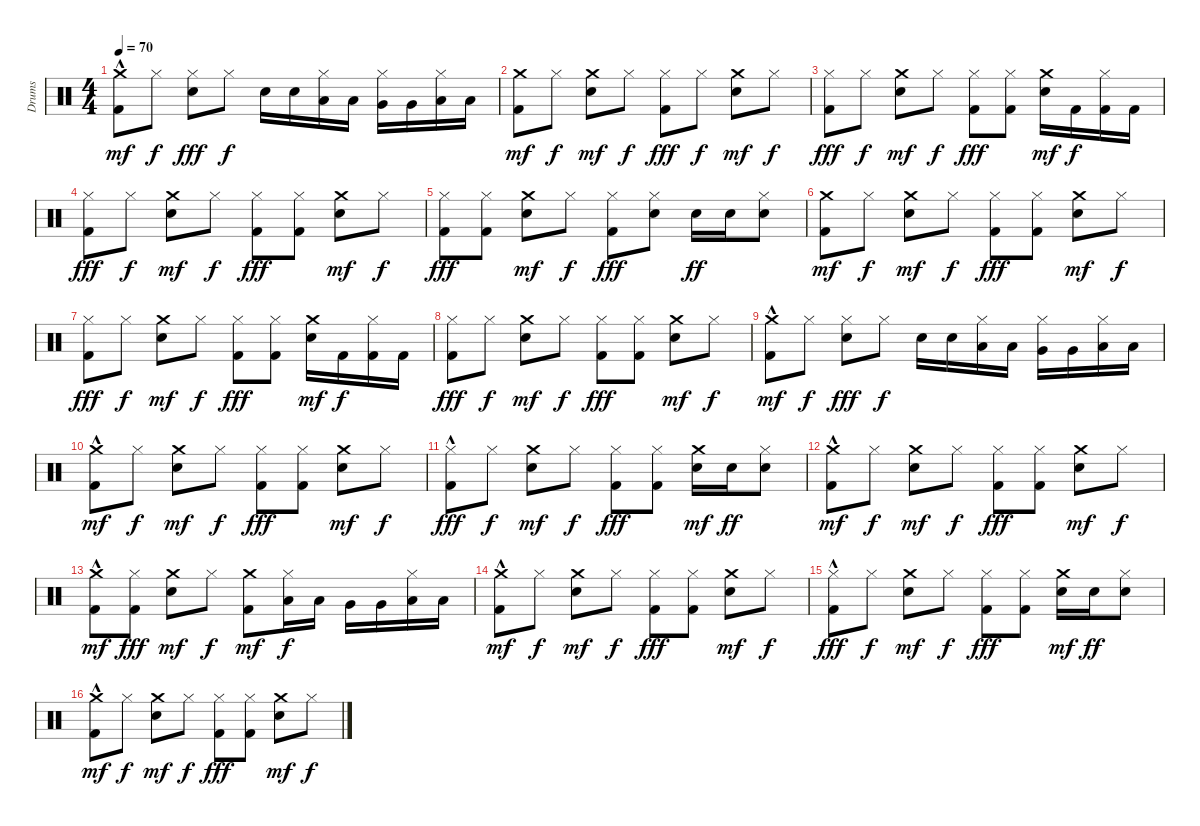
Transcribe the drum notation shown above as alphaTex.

\track ("Drums" "Drums") {instrument percussion}
\staff {score}
\articulation defaults
\ts (4 4)
\tempo 70
\clef neutral
\ks c
("Kick (hit) 2"{hac} "Crash medium (hit)").8{dy mf} "Hi-Hat (closed)".8{dy f} ("Snare (hit) 2" "Hi-Hat (closed)").8{dy fff} "Hi-Hat (closed)".8{dy f} "Snare (hit) 2".16 "Snare (hit) 2".16 ("Low Tom (hit)" "Hi-Hat (closed)").16 "Low Tom (hit)".16 ("Very Low Tom (hit)" "Hi-Hat (closed)").16 "Very Low Tom (hit)".16 ("Low Floor Tom (hit)" "Hi-Hat (closed)").16 "Low Floor Tom (hit)".16 |
("Kick (hit) 2" "Crash medium (hit)").8{dy mf} "Hi-Hat (closed)".8{dy f} ("Snare (hit) 2" "Crash medium (hit)").8{dy mf} "Hi-Hat (closed)".8{dy f} ("Kick (hit) 2" "Hi-Hat (closed)").8{dy fff} "Hi-Hat (closed)".8{dy f} ("Snare (hit) 2" "Crash medium (hit)").8{dy mf} "Hi-Hat (closed)".8{dy f} |
("Kick (hit) 2" "Hi-Hat (closed)").8{dy fff} "Hi-Hat (closed)".8{dy f} ("Snare (hit) 2" "Crash medium (hit)").8{dy mf} "Hi-Hat (closed)".8{dy f} ("Kick (hit) 2" "Hi-Hat (closed)").8{dy fff} ("Kick (hit) 2" "Hi-Hat (closed)").8 ("Snare (hit) 2" "Crash medium (hit)").16{dy mf} "Kick (hit) 2".16{dy f} ("Kick (hit) 2" "Hi-Hat (closed)").16 "Kick (hit) 2".16 |
("Hi-Hat (closed)" "Kick (hit) 2").8{dy fff} "Hi-Hat (closed)".8{dy f} ("Snare (hit) 2" "Crash medium (hit)").8{dy mf} "Hi-Hat (closed)".8{dy f} ("Kick (hit) 2" "Hi-Hat (closed)").8{dy fff} ("Kick (hit) 2" "Hi-Hat (closed)").8 ("Snare (hit) 2" "Crash medium (hit)").8{dy mf} "Hi-Hat (closed)".8{dy f} |
("Hi-Hat (closed)" "Kick (hit) 2").8{dy fff} ("Kick (hit) 2" "Hi-Hat (closed)").8 ("Snare (hit) 2" "Crash medium (hit)").8{dy mf} "Hi-Hat (closed)".8{dy f} ("Kick (hit) 2" "Hi-Hat (closed)").8{dy fff} ("Snare (hit) 2" "Hi-Hat (closed)").8 "Snare (hit) 2".16{dy ff} "Snare (hit) 2".16 ("Snare (hit) 2" "Hi-Hat (closed)").8 |
("Kick (hit) 2" "Crash medium (hit)").8{dy mf} "Hi-Hat (closed)".8{dy f} ("Snare (hit) 2" "Crash medium (hit)").8{dy mf} "Hi-Hat (closed)".8{dy f} ("Kick (hit) 2" "Hi-Hat (closed)").8{dy fff} ("Hi-Hat (closed)" "Kick (hit) 2").8 ("Snare (hit) 2" "Crash medium (hit)").8{dy mf} "Hi-Hat (closed)".8{dy f} |
("Kick (hit) 2" "Hi-Hat (closed)").8{dy fff} "Hi-Hat (closed)".8{dy f} ("Snare (hit) 2" "Crash medium (hit)").8{dy mf} "Hi-Hat (closed)".8{dy f} ("Kick (hit) 2" "Hi-Hat (closed)").8{dy fff} ("Kick (hit) 2" "Hi-Hat (closed)").8 ("Snare (hit) 2" "Crash medium (hit)").16{dy mf} "Kick (hit) 2".16{dy f} ("Kick (hit) 2" "Hi-Hat (closed)").16 "Kick (hit) 2".16 |
("Hi-Hat (closed)" "Kick (hit) 2").8{dy fff} "Hi-Hat (closed)".8{dy f} ("Snare (hit) 2" "Crash medium (hit)").8{dy mf} "Hi-Hat (closed)".8{dy f} ("Kick (hit) 2" "Hi-Hat (closed)").8{dy fff} ("Kick (hit) 2" "Hi-Hat (closed)").8 ("Snare (hit) 2" "Crash medium (hit)").8{dy mf} "Hi-Hat (closed)".8{dy f} |
("Kick (hit) 2"{hac} "Crash medium (hit)").8{dy mf} "Hi-Hat (closed)".8{dy f} ("Snare (hit) 2" "Hi-Hat (closed)").8{dy fff} "Hi-Hat (closed)".8{dy f} "Snare (hit) 2".16 "Snare (hit) 2".16 ("Low Tom (hit)" "Hi-Hat (closed)").16 "Low Tom (hit)".16 ("Very Low Tom (hit)" "Hi-Hat (closed)").16 "Very Low Tom (hit)".16 ("Low Floor Tom (hit)" "Hi-Hat (closed)").16 "Low Floor Tom (hit)".16 |
("Kick (hit) 2"{hac} "Crash medium (hit)").8{dy mf} "Hi-Hat (closed)".8{dy f} ("Snare (hit) 2" "Crash medium (hit)").8{dy mf} "Hi-Hat (closed)".8{dy f} ("Kick (hit) 2" "Hi-Hat (closed)").8{dy fff} ("Kick (hit) 2" "Hi-Hat (closed)").8 ("Snare (hit) 2" "Crash medium (hit)").8{dy mf} "Hi-Hat (closed)".8{dy f} |
("Kick (hit) 2"{hac} "Hi-Hat (closed)").8{dy fff} "Hi-Hat (closed)".8{dy f} ("Snare (hit) 2" "Crash medium (hit)").8{dy mf} "Hi-Hat (closed)".8{dy f} ("Kick (hit) 2" "Hi-Hat (closed)").8{dy fff} ("Kick (hit) 2" "Hi-Hat (closed)").8 ("Snare (hit) 2" "Crash medium (hit)").16{dy mf} "Snare (hit) 2".16{dy ff} ("Snare (hit) 2" "Hi-Hat (closed)").8 |
("Kick (hit) 2"{hac} "Crash medium (hit)").8{dy mf} "Hi-Hat (closed)".8{dy f} ("Snare (hit) 2" "Crash medium (hit)").8{dy mf} "Hi-Hat (closed)".8{dy f} ("Kick (hit) 2" "Hi-Hat (closed)").8{dy fff} ("Kick (hit) 2" "Hi-Hat (closed)").8 ("Snare (hit) 2" "Crash medium (hit)").8{dy mf} "Hi-Hat (closed)".8{dy f} |
("Kick (hit) 2"{hac} "Crash medium (hit)").8{dy mf} ("Kick (hit) 2" "Hi-Hat (closed)").8{dy fff} ("Snare (hit) 2" "Crash medium (hit)").8{dy mf} "Hi-Hat (closed)".8{dy f} ("Kick (hit) 2" "Crash medium (hit)").8{dy mf} ("Low Tom (hit)" "Hi-Hat (closed)").16{dy f} "Low Tom (hit)".16 "Very Low Tom (hit)".16 "Very Low Tom (hit)".16 ("Low Floor Tom (hit)" "Hi-Hat (closed)").16 "Low Floor Tom (hit)".16 |
("Kick (hit) 2"{hac} "Crash medium (hit)").8{dy mf} "Hi-Hat (closed)".8{dy f} ("Snare (hit) 2" "Crash medium (hit)").8{dy mf} "Hi-Hat (closed)".8{dy f} ("Kick (hit) 2" "Hi-Hat (closed)").8{dy fff} ("Kick (hit) 2" "Hi-Hat (closed)").8 ("Snare (hit) 2" "Crash medium (hit)").8{dy mf} "Hi-Hat (closed)".8{dy f} |
("Kick (hit) 2"{hac} "Hi-Hat (closed)").8{dy fff} "Hi-Hat (closed)".8{dy f} ("Snare (hit) 2" "Crash medium (hit)").8{dy mf} "Hi-Hat (closed)".8{dy f} ("Kick (hit) 2" "Hi-Hat (closed)").8{dy fff} ("Kick (hit) 2" "Hi-Hat (closed)").8 ("Snare (hit) 2" "Crash medium (hit)").16{dy mf} "Snare (hit) 2".16{dy ff} ("Snare (hit) 2" "Hi-Hat (closed)").8 |
("Kick (hit) 2"{hac} "Crash medium (hit)").8{dy mf} "Hi-Hat (closed)".8{dy f} ("Snare (hit) 2" "Crash medium (hit)").8{dy mf} "Hi-Hat (closed)".8{dy f} ("Kick (hit) 2" "Hi-Hat (closed)").8{dy fff} ("Kick (hit) 2" "Hi-Hat (closed)").8 ("Snare (hit) 2" "Crash medium (hit)").8{dy mf} "Hi-Hat (closed)".8{dy f}
